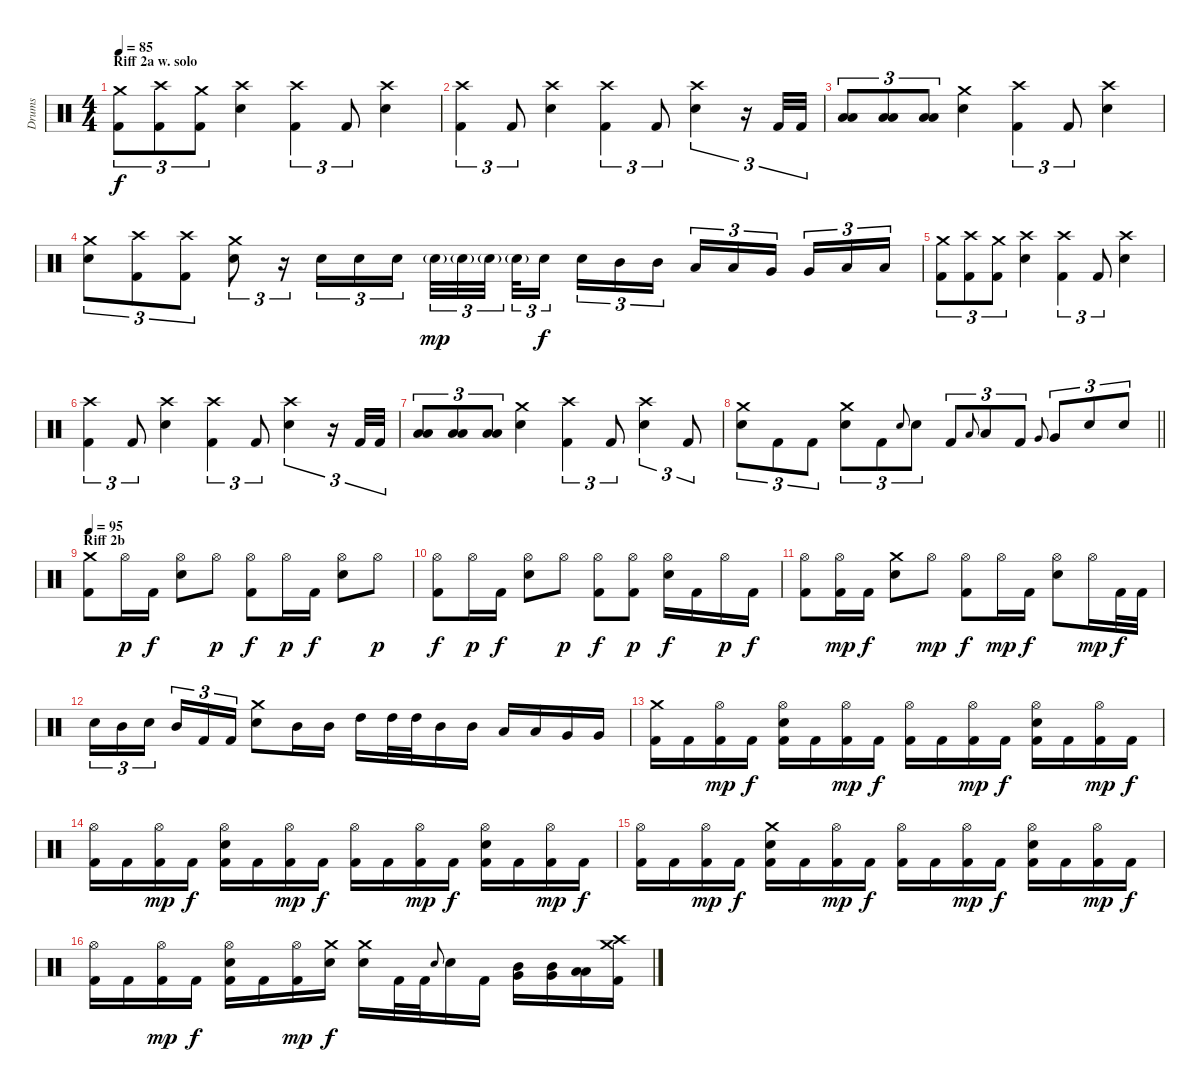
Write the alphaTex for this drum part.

\track ("Drums" "Drums") {instrument percussion}
\staff {score}
\articulation defaults
\ts (4 4)
\section ("" "Riff 2a w. solo")
\tempo 85
\clef neutral
\ks c
("Kick (hit) 2" "Crash medium (hit)").8{tu (3 2) dy f} ("Kick (hit) 2" "Crash high (hit)").8{tu (3 2)} ("Kick (hit) 2" "Crash medium (hit)").8{tu (3 2)} ("Electric Snare (hit)" "Crash high (hit)").4 ("Crash high (hit)" "Kick (hit) 2").4{tu (3 2)} "Kick (hit) 2".8{tu (3 2)} ("Crash high (hit)" "Electric Snare (hit)").4 |
("Crash high (hit)" "Kick (hit) 2").4{tu (3 2)} "Kick (hit) 2".8{tu (3 2)} ("Crash high (hit)" "Electric Snare (hit)").4 ("Crash high (hit)" "Kick (hit) 2").4{tu (3 2)} "Kick (hit) 2".8{tu (3 2)} ("Crash high (hit)" "Electric Snare (hit)").4{tu (3 2)} r.16{tu (3 2)} "Kick (hit) 2".32{tu (3 2)} "Kick (hit) 2".32{tu (3 2)} |
("Low Tom (hit)" "Low Floor Tom (hit)").8{tu (3 2)} ("Low Tom (hit)" "Low Floor Tom (hit)").8{tu (3 2)} ("Low Tom (hit)" "Low Floor Tom (hit)").8{tu (3 2)} ("Electric Snare (hit)" "Crash medium (hit)").4 ("Crash high (hit)" "Kick (hit) 2").4{tu (3 2)} "Kick (hit) 2".8{tu (3 2)} ("Crash high (hit)" "Electric Snare (hit)").4 |
("Electric Snare (hit)" "Crash medium (hit)").8{tu (3 2)} ("Kick (hit) 2" "Crash high (hit)").8{tu (3 2)} ("Kick (hit) 2" "Crash high (hit)").8{tu (3 2)} ("Electric Snare (hit)" "Crash medium (hit)").8{tu (3 2)} r.16{tu (3 2)} "Electric Snare (hit)".16{tu (3 2)} "Electric Snare (hit)".16{tu (3 2)} "Electric Snare (hit)".16{tu (3 2)} "Electric Snare (hit)"{g}.32{tu (3 2) dy mp} "Electric Snare (hit)"{g}.32{tu (3 2)} "Electric Snare (hit)"{g}.32{tu (3 2) beam splitsecondary} "Electric Snare (hit)"{g}.32{tu (3 2)} "Electric Snare (hit)".16{tu (3 2) dy f beam splitsecondary} "Electric Snare (hit)".16{tu (3 2)} "Mid Tom (hit)".16{tu (3 2)} "Mid Tom (hit)".16{tu (3 2)} "Low Tom (hit)".16{tu (3 2)} "Low Tom (hit)".16{tu (3 2)} "Very Low Tom (hit)".16{tu (3 2) beam splitsecondary} "Very Low Tom (hit)".16{tu (3 2)} "Low Floor Tom (hit)".16{tu (3 2)} "Low Floor Tom (hit)".16{tu (3 2)} |
("Kick (hit) 2" "Crash medium (hit)").8{tu (3 2)} ("Kick (hit) 2" "Crash high (hit)").8{tu (3 2)} ("Kick (hit) 2" "Crash medium (hit)").8{tu (3 2)} ("Electric Snare (hit)" "Crash high (hit)").4 ("Crash high (hit)" "Kick (hit) 2").4{tu (3 2)} "Kick (hit) 2".8{tu (3 2)} ("Crash high (hit)" "Electric Snare (hit)").4 |
("Crash high (hit)" "Kick (hit) 2").4{tu (3 2)} "Kick (hit) 2".8{tu (3 2)} ("Crash high (hit)" "Electric Snare (hit)").4 ("Crash high (hit)" "Kick (hit) 2").4{tu (3 2)} "Kick (hit) 2".8{tu (3 2)} ("Crash high (hit)" "Electric Snare (hit)").4{tu (3 2)} r.16{tu (3 2)} "Kick (hit) 2".32{tu (3 2)} "Kick (hit) 2".32{tu (3 2)} |
("Low Tom (hit)" "Low Floor Tom (hit)").8{tu (3 2)} ("Low Tom (hit)" "Low Floor Tom (hit)").8{tu (3 2)} ("Low Tom (hit)" "Low Floor Tom (hit)").8{tu (3 2)} ("Electric Snare (hit)" "Crash medium (hit)").4 ("Crash high (hit)" "Kick (hit) 2").4{tu (3 2)} "Kick (hit) 2".8{tu (3 2)} ("Crash high (hit)" "Electric Snare (hit)").4{tu (3 2)} "Kick (hit) 2".8{tu (3 2)} |
\barLineRight lightlight
("Electric Snare (hit)" "Crash medium (hit)").8{tu (3 2)} "Kick (hit) 2".8{tu (3 2)} "Kick (hit) 2".8{tu (3 2)} ("Electric Snare (hit)" "Crash medium (hit)").8{tu (3 2)} "Kick (hit) 2".8{tu (3 2)} "Electric Snare (hit)".8{gr onbeat} "Electric Snare (hit)".8{tu (3 2)} "Kick (hit) 2".8{tu (3 2)} "Low Tom (hit)".8{gr onbeat} "Low Tom (hit)".8{tu (3 2)} "Kick (hit) 2".8{tu (3 2)} "Very Low Tom (hit)".8{gr onbeat} "Very Low Tom (hit)".8{tu (3 2)} "Electric Snare (hit)".8{tu (3 2)} "Electric Snare (hit)".8{tu (3 2)} |
\section ("" "Riff 2b")
\tempo 95
("Crash medium (hit)" "Kick (hit) 2").8 "Hi-Hat (open)".16{dy p} "Kick (hit) 2".16{dy f} ("Electric Snare (hit)" "Hi-Hat (open)").8 "Hi-Hat (open)".8{dy p} ("Kick (hit) 2" "Hi-Hat (open)").8{dy f} "Hi-Hat (open)".16{dy p} "Kick (hit) 2".16{dy f} ("Electric Snare (hit)" "Hi-Hat (open)").8 "Hi-Hat (open)".8{dy p} |
("Kick (hit) 2" "Hi-Hat (open)").8{dy f} "Hi-Hat (open)".16{dy p} "Kick (hit) 2".16{dy f} ("Electric Snare (hit)" "Hi-Hat (open)").8 "Hi-Hat (open)".8{dy p} ("Kick (hit) 2" "Hi-Hat (open)").8{dy f} ("Kick (hit) 2" "Hi-Hat (open)").8{dy p} ("Electric Snare (hit)" "Hi-Hat (open)").16{dy f} "Kick (hit) 2".16 "Hi-Hat (open)".16{dy p} "Kick (hit) 2".16{dy f} |
("Kick (hit) 2" "Hi-Hat (open)").8 ("Kick (hit) 2" "Hi-Hat (open)").16{dy mp} "Kick (hit) 2".16{dy f} ("Electric Snare (hit)" "Crash medium (hit)").8 "Hi-Hat (open)".8{dy mp} ("Kick (hit) 2" "Hi-Hat (open)").8{dy f} "Hi-Hat (open)".16{dy mp} "Kick (hit) 2".16{dy f} ("Electric Snare (hit)" "Hi-Hat (open)").8 "Hi-Hat (open)".16{dy mp} "Kick (hit) 2".32{dy f} "Kick (hit) 2".32 |
"Electric Snare (hit)".16{tu (3 2)} "Mid Tom (hit)".16{tu (3 2)} "Electric Snare (hit)".16{tu (3 2) beam splitsecondary} "Mid Tom (hit)".16{tu (3 2)} "Kick (hit) 2".16{tu (3 2)} "Kick (hit) 2".16{tu (3 2)} ("Electric Snare (hit)" "Crash medium (hit)").8 "Mid Tom (hit)".16 "Mid Tom (hit)".16 "High Tom (hit)".16 "High Tom (hit)".32 "High Tom (hit)".32 "Mid Tom (hit)".16 "Mid Tom (hit)".16 "Low Tom (hit)".16 "Low Tom (hit)".16 "Very Low Tom (hit)".16 "Very Low Tom (hit)".16 |
("Crash medium (hit)" "Kick (hit) 2").16 "Kick (hit) 2".16 ("Hi-Hat (open)" "Kick (hit) 2").16{dy mp} "Kick (hit) 2".16{dy f} ("Kick (hit) 2" "Hi-Hat (open)" "Electric Snare (hit)").16 "Kick (hit) 2".16 ("Kick (hit) 2" "Hi-Hat (open)").16{dy mp} "Kick (hit) 2".16{dy f} ("Kick (hit) 2" "Hi-Hat (open)").16 "Kick (hit) 2".16 ("Kick (hit) 2" "Hi-Hat (open)").16{dy mp} "Kick (hit) 2".16{dy f} ("Kick (hit) 2" "Hi-Hat (open)" "Electric Snare (hit)").16 "Kick (hit) 2".16 ("Kick (hit) 2" "Hi-Hat (open)").16{dy mp} "Kick (hit) 2".16{dy f} |
("Kick (hit) 2" "Hi-Hat (open)").16 "Kick (hit) 2".16 ("Kick (hit) 2" "Hi-Hat (open)").16{dy mp} "Kick (hit) 2".16{dy f} ("Kick (hit) 2" "Hi-Hat (open)" "Electric Snare (hit)").16 "Kick (hit) 2".16 ("Kick (hit) 2" "Hi-Hat (open)").16{dy mp} "Kick (hit) 2".16{dy f} ("Kick (hit) 2" "Hi-Hat (open)").16 "Kick (hit) 2".16 ("Kick (hit) 2" "Hi-Hat (open)").16{dy mp} "Kick (hit) 2".16{dy f} ("Kick (hit) 2" "Hi-Hat (open)" "Electric Snare (hit)").16 "Kick (hit) 2".16 ("Kick (hit) 2" "Hi-Hat (open)").16{dy mp} "Kick (hit) 2".16{dy f} |
("Kick (hit) 2" "Hi-Hat (open)").16 "Kick (hit) 2".16 ("Kick (hit) 2" "Hi-Hat (open)").16{dy mp} "Kick (hit) 2".16{dy f} ("Kick (hit) 2" "Crash medium (hit)" "Electric Snare (hit)").16 "Kick (hit) 2".16 ("Kick (hit) 2" "Hi-Hat (open)").16{dy mp} "Kick (hit) 2".16{dy f} ("Kick (hit) 2" "Hi-Hat (open)").16 "Kick (hit) 2".16 ("Kick (hit) 2" "Hi-Hat (open)").16{dy mp} "Kick (hit) 2".16{dy f} ("Kick (hit) 2" "Hi-Hat (open)" "Electric Snare (hit)").16 "Kick (hit) 2".16 ("Kick (hit) 2" "Hi-Hat (open)").16{dy mp} "Kick (hit) 2".16{dy f} |
("Kick (hit) 2" "Hi-Hat (open)").16 "Kick (hit) 2".16 ("Kick (hit) 2" "Hi-Hat (open)").16{dy mp} "Kick (hit) 2".16{dy f} ("Kick (hit) 2" "Hi-Hat (open)" "Electric Snare (hit)").16 "Kick (hit) 2".16 ("Kick (hit) 2" "Hi-Hat (open)").16{dy mp} ("Electric Snare (hit)" "Crash medium (hit)").16{dy f} ("Electric Snare (hit)" "Crash medium (hit)").16 "Kick (hit) 2".32 "Kick (hit) 2".32 "Electric Snare (hit)".8{gr onbeat} "Electric Snare (hit)".16 "Kick (hit) 2".16 ("Mid Tom (hit)" "Very Low Tom (hit)").16 ("Mid Tom (hit)" "Very Low Tom (hit)").16 ("Low Tom (hit)" "Low Floor Tom (hit)").16 ("Kick (hit) 2" "Crash medium (hit)" "Crash high (hit)").16
